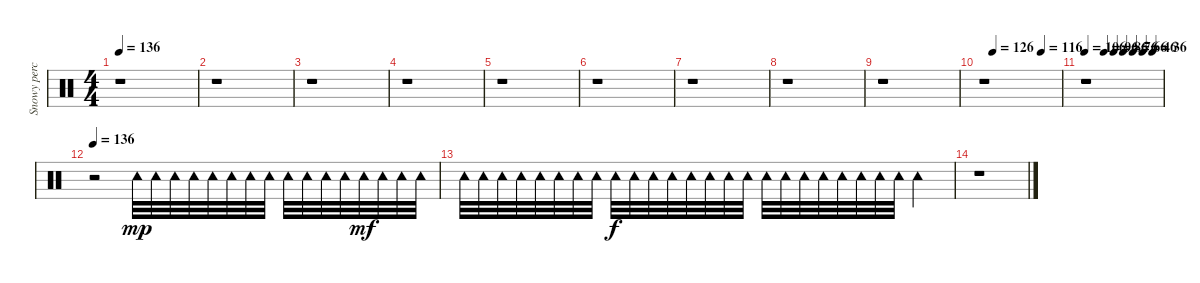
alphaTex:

\track ("Snowy percussion" "Snowy perc") {instrument percussion}
\staff {score}
\articulation defaults
\ts (4 4)
\tempo 136
\clef neutral
\ks c
r.1{dy f} |
r.1 |
r.1 |
r.1 |
r.1 |
r.1 |
r.1 |
r.1 |
r.1 |
\tempo (126 0.125)
\tempo (116 0.75)
r.1 |
\tempo 106
\tempo (96 0.25)
\tempo (86 0.375)
\tempo (76 0.5)
\tempo (66 0.625)
\tempo (46 0.75)
\tempo (36 0.875)
r.1 |
\tempo 136
r.2 "Tambourine (hit)".32{dy mp} "Tambourine (hit)".32 "Tambourine (hit)".32 "Tambourine (hit)".32 "Tambourine (hit)".32 "Tambourine (hit)".32 "Tambourine (hit)".32 "Tambourine (hit)".32 "Tambourine (hit)".32 "Tambourine (hit)".32 "Tambourine (hit)".32 "Tambourine (hit)".32 "Tambourine (hit)".32{dy mf} "Tambourine (hit)".32 "Tambourine (hit)".32 "Tambourine (hit)".32 |
"Tambourine (hit)".32 "Tambourine (hit)".32 "Tambourine (hit)".32 "Tambourine (hit)".32 "Tambourine (hit)".32 "Tambourine (hit)".32 "Tambourine (hit)".32 "Tambourine (hit)".32 "Tambourine (hit)".32{dy f} "Tambourine (hit)".32 "Tambourine (hit)".32 "Tambourine (hit)".32 "Tambourine (hit)".32 "Tambourine (hit)".32 "Tambourine (hit)".32 "Tambourine (hit)".32 "Tambourine (hit)".32 "Tambourine (hit)".32 "Tambourine (hit)".32 "Tambourine (hit)".32 "Tambourine (hit)".32 "Tambourine (hit)".32 "Tambourine (hit)".32 "Tambourine (hit)".32 "Tambourine (hit)".4 |
r.1
